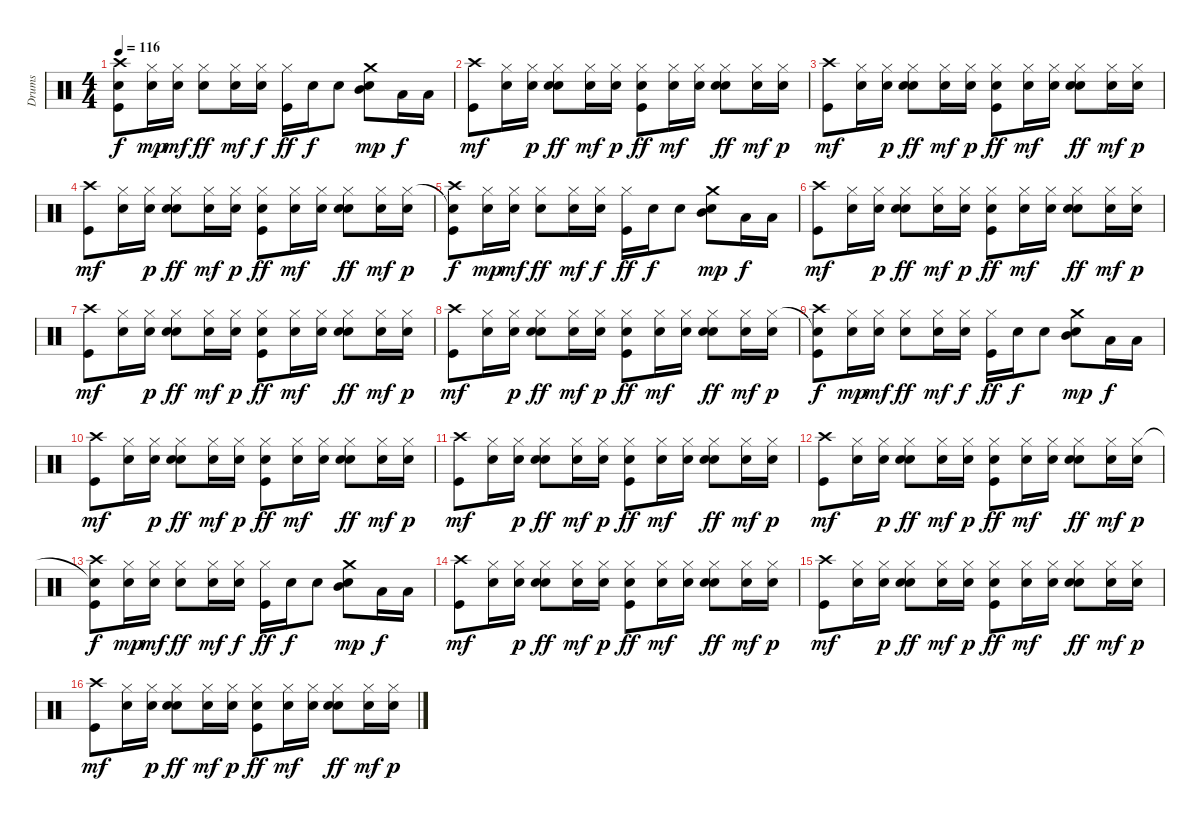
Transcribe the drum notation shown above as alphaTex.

\track ("Drums" "Drums") {instrument percussion}
\staff {score}
\articulation defaults
\ts (4 4)
\tempo 116
\clef neutral
\ks c
("Kick (hit)" "Snare (hit)"{t} "Crash high (hit)").8{dy f} ("Snare (hit) 2" "Hi-Hat (closed)").16{dy mp} ("Snare (hit) 2" "Hi-Hat (closed)").16{dy mf} ("Electric Snare (hit)" "Hi-Hat (closed)").8{dy ff} ("Snare (hit) 2" "Hi-Hat (closed)").16{dy mf} ("Snare (hit) 2" "Hi-Hat (closed)").16{dy f} ("Kick (hit)" "Hi-Hat (closed)").16{dy ff} "Snare (hit) 2".16{dy f} "Snare (hit) 2".8 ("Electric Snare (hit)" "Mid Tom (hit)" "Crash medium (hit)").8{dy mp} "Low Tom (hit)".16{dy f} "Low Floor Tom (hit)".16 |
("Kick (hit)" "Crash high (hit)").8{dy mf} ("Snare (hit) 2" "Hi-Hat (closed)").16 ("Snare (hit) 2" "Hi-Hat (closed)").16{dy p} ("Snare (hit) 2" "Electric Snare (hit)" "Hi-Hat (closed)").8{dy ff} ("Snare (hit) 2" "Hi-Hat (closed)").16{dy mf} ("Snare (hit) 2" "Hi-Hat (closed)").16{dy p} ("Kick (hit)" "Snare (hit) 2" "Hi-Hat (closed)").8{dy ff} ("Snare (hit) 2" "Hi-Hat (closed)").16{dy mf} ("Snare (hit) 2" "Hi-Hat (closed)").16 ("Snare (hit) 2" "Electric Snare (hit)" "Hi-Hat (closed)").8{dy ff} ("Snare (hit) 2" "Hi-Hat (closed)").16{dy mf} ("Snare (hit) 2" "Hi-Hat (closed)").16{dy p} |
("Kick (hit)" "Crash high (hit)").8{dy mf} ("Snare (hit) 2" "Hi-Hat (closed)").16 ("Snare (hit) 2" "Hi-Hat (closed)").16{dy p} ("Snare (hit) 2" "Electric Snare (hit)" "Hi-Hat (closed)").8{dy ff} ("Snare (hit) 2" "Hi-Hat (closed)").16{dy mf} ("Snare (hit) 2" "Hi-Hat (closed)").16{dy p} ("Kick (hit)" "Snare (hit) 2" "Hi-Hat (closed)").8{dy ff} ("Snare (hit) 2" "Hi-Hat (closed)").16{dy mf} ("Snare (hit) 2" "Hi-Hat (closed)").16 ("Snare (hit) 2" "Electric Snare (hit)" "Hi-Hat (closed)").8{dy ff} ("Snare (hit) 2" "Hi-Hat (closed)").16{dy mf} ("Snare (hit) 2" "Hi-Hat (closed)").16{dy p} |
("Kick (hit)" "Crash high (hit)").8{dy mf} ("Snare (hit) 2" "Hi-Hat (closed)").16 ("Snare (hit) 2" "Hi-Hat (closed)").16{dy p} ("Snare (hit) 2" "Electric Snare (hit)" "Hi-Hat (closed)").8{dy ff} ("Snare (hit) 2" "Hi-Hat (closed)").16{dy mf} ("Snare (hit) 2" "Hi-Hat (closed)").16{dy p} ("Kick (hit)" "Snare (hit) 2" "Hi-Hat (closed)").8{dy ff} ("Snare (hit) 2" "Hi-Hat (closed)").16{dy mf} ("Snare (hit) 2" "Hi-Hat (closed)").16 ("Snare (hit) 2" "Electric Snare (hit)" "Hi-Hat (closed)").8{dy ff} ("Snare (hit) 2" "Hi-Hat (closed)").16{dy mf} ("Snare (hit) 2" "Hi-Hat (closed)").16{dy p} |
("Kick (hit)" "Snare (hit)"{t} "Crash high (hit)").8{dy f} ("Snare (hit) 2" "Hi-Hat (closed)").16{dy mp} ("Snare (hit) 2" "Hi-Hat (closed)").16{dy mf} ("Electric Snare (hit)" "Hi-Hat (closed)").8{dy ff} ("Snare (hit) 2" "Hi-Hat (closed)").16{dy mf} ("Snare (hit) 2" "Hi-Hat (closed)").16{dy f} ("Kick (hit)" "Hi-Hat (closed)").16{dy ff} "Snare (hit) 2".16{dy f} "Snare (hit) 2".8 ("Electric Snare (hit)" "Mid Tom (hit)" "Crash medium (hit)").8{dy mp} "Low Tom (hit)".16{dy f} "Low Floor Tom (hit)".16 |
("Kick (hit)" "Crash high (hit)").8{dy mf} ("Snare (hit) 2" "Hi-Hat (closed)").16 ("Snare (hit) 2" "Hi-Hat (closed)").16{dy p} ("Snare (hit) 2" "Electric Snare (hit)" "Hi-Hat (closed)").8{dy ff} ("Snare (hit) 2" "Hi-Hat (closed)").16{dy mf} ("Snare (hit) 2" "Hi-Hat (closed)").16{dy p} ("Kick (hit)" "Snare (hit) 2" "Hi-Hat (closed)").8{dy ff} ("Snare (hit) 2" "Hi-Hat (closed)").16{dy mf} ("Snare (hit) 2" "Hi-Hat (closed)").16 ("Snare (hit) 2" "Electric Snare (hit)" "Hi-Hat (closed)").8{dy ff} ("Snare (hit) 2" "Hi-Hat (closed)").16{dy mf} ("Snare (hit) 2" "Hi-Hat (closed)").16{dy p} |
("Kick (hit)" "Crash high (hit)").8{dy mf} ("Snare (hit) 2" "Hi-Hat (closed)").16 ("Snare (hit) 2" "Hi-Hat (closed)").16{dy p} ("Snare (hit) 2" "Electric Snare (hit)" "Hi-Hat (closed)").8{dy ff} ("Snare (hit) 2" "Hi-Hat (closed)").16{dy mf} ("Snare (hit) 2" "Hi-Hat (closed)").16{dy p} ("Kick (hit)" "Snare (hit) 2" "Hi-Hat (closed)").8{dy ff} ("Snare (hit) 2" "Hi-Hat (closed)").16{dy mf} ("Snare (hit) 2" "Hi-Hat (closed)").16 ("Snare (hit) 2" "Electric Snare (hit)" "Hi-Hat (closed)").8{dy ff} ("Snare (hit) 2" "Hi-Hat (closed)").16{dy mf} ("Snare (hit) 2" "Hi-Hat (closed)").16{dy p} |
("Kick (hit)" "Crash high (hit)").8{dy mf} ("Snare (hit) 2" "Hi-Hat (closed)").16 ("Snare (hit) 2" "Hi-Hat (closed)").16{dy p} ("Snare (hit) 2" "Electric Snare (hit)" "Hi-Hat (closed)").8{dy ff} ("Snare (hit) 2" "Hi-Hat (closed)").16{dy mf} ("Snare (hit) 2" "Hi-Hat (closed)").16{dy p} ("Kick (hit)" "Snare (hit) 2" "Hi-Hat (closed)").8{dy ff} ("Snare (hit) 2" "Hi-Hat (closed)").16{dy mf} ("Snare (hit) 2" "Hi-Hat (closed)").16 ("Snare (hit) 2" "Electric Snare (hit)" "Hi-Hat (closed)").8{dy ff} ("Snare (hit) 2" "Hi-Hat (closed)").16{dy mf} ("Snare (hit) 2" "Hi-Hat (closed)").16{dy p} |
("Kick (hit)" "Snare (hit)"{t} "Crash high (hit)").8{dy f} ("Snare (hit) 2" "Hi-Hat (closed)").16{dy mp} ("Snare (hit) 2" "Hi-Hat (closed)").16{dy mf} ("Electric Snare (hit)" "Hi-Hat (closed)").8{dy ff} ("Snare (hit) 2" "Hi-Hat (closed)").16{dy mf} ("Snare (hit) 2" "Hi-Hat (closed)").16{dy f} ("Kick (hit)" "Hi-Hat (closed)").16{dy ff} "Snare (hit) 2".16{dy f} "Snare (hit) 2".8 ("Electric Snare (hit)" "Mid Tom (hit)" "Crash medium (hit)").8{dy mp} "Low Tom (hit)".16{dy f} "Low Floor Tom (hit)".16 |
("Kick (hit)" "Crash high (hit)").8{dy mf} ("Snare (hit) 2" "Hi-Hat (closed)").16 ("Snare (hit) 2" "Hi-Hat (closed)").16{dy p} ("Snare (hit) 2" "Electric Snare (hit)" "Hi-Hat (closed)").8{dy ff} ("Snare (hit) 2" "Hi-Hat (closed)").16{dy mf} ("Snare (hit) 2" "Hi-Hat (closed)").16{dy p} ("Kick (hit)" "Snare (hit) 2" "Hi-Hat (closed)").8{dy ff} ("Snare (hit) 2" "Hi-Hat (closed)").16{dy mf} ("Snare (hit) 2" "Hi-Hat (closed)").16 ("Snare (hit) 2" "Electric Snare (hit)" "Hi-Hat (closed)").8{dy ff} ("Snare (hit) 2" "Hi-Hat (closed)").16{dy mf} ("Snare (hit) 2" "Hi-Hat (closed)").16{dy p} |
("Kick (hit)" "Crash high (hit)").8{dy mf} ("Snare (hit) 2" "Hi-Hat (closed)").16 ("Snare (hit) 2" "Hi-Hat (closed)").16{dy p} ("Snare (hit) 2" "Electric Snare (hit)" "Hi-Hat (closed)").8{dy ff} ("Snare (hit) 2" "Hi-Hat (closed)").16{dy mf} ("Snare (hit) 2" "Hi-Hat (closed)").16{dy p} ("Kick (hit)" "Snare (hit) 2" "Hi-Hat (closed)").8{dy ff} ("Snare (hit) 2" "Hi-Hat (closed)").16{dy mf} ("Snare (hit) 2" "Hi-Hat (closed)").16 ("Snare (hit) 2" "Electric Snare (hit)" "Hi-Hat (closed)").8{dy ff} ("Snare (hit) 2" "Hi-Hat (closed)").16{dy mf} ("Snare (hit) 2" "Hi-Hat (closed)").16{dy p} |
("Kick (hit)" "Crash high (hit)").8{dy mf} ("Snare (hit) 2" "Hi-Hat (closed)").16 ("Snare (hit) 2" "Hi-Hat (closed)").16{dy p} ("Snare (hit) 2" "Electric Snare (hit)" "Hi-Hat (closed)").8{dy ff} ("Snare (hit) 2" "Hi-Hat (closed)").16{dy mf} ("Snare (hit) 2" "Hi-Hat (closed)").16{dy p} ("Kick (hit)" "Snare (hit) 2" "Hi-Hat (closed)").8{dy ff} ("Snare (hit) 2" "Hi-Hat (closed)").16{dy mf} ("Snare (hit) 2" "Hi-Hat (closed)").16 ("Snare (hit) 2" "Electric Snare (hit)" "Hi-Hat (closed)").8{dy ff} ("Snare (hit) 2" "Hi-Hat (closed)").16{dy mf} ("Snare (hit) 2" "Hi-Hat (closed)").16{dy p} |
("Kick (hit)" "Snare (hit)"{t} "Crash high (hit)").8{dy f} ("Snare (hit) 2" "Hi-Hat (closed)").16{dy mp} ("Snare (hit) 2" "Hi-Hat (closed)").16{dy mf} ("Electric Snare (hit)" "Hi-Hat (closed)").8{dy ff} ("Snare (hit) 2" "Hi-Hat (closed)").16{dy mf} ("Snare (hit) 2" "Hi-Hat (closed)").16{dy f} ("Kick (hit)" "Hi-Hat (closed)").16{dy ff} "Snare (hit) 2".16{dy f} "Snare (hit) 2".8 ("Electric Snare (hit)" "Mid Tom (hit)" "Crash medium (hit)").8{dy mp} "Low Tom (hit)".16{dy f} "Low Floor Tom (hit)".16 |
("Kick (hit)" "Crash high (hit)").8{dy mf} ("Snare (hit) 2" "Hi-Hat (closed)").16 ("Snare (hit) 2" "Hi-Hat (closed)").16{dy p} ("Snare (hit) 2" "Electric Snare (hit)" "Hi-Hat (closed)").8{dy ff} ("Snare (hit) 2" "Hi-Hat (closed)").16{dy mf} ("Snare (hit) 2" "Hi-Hat (closed)").16{dy p} ("Kick (hit)" "Snare (hit) 2" "Hi-Hat (closed)").8{dy ff} ("Snare (hit) 2" "Hi-Hat (closed)").16{dy mf} ("Snare (hit) 2" "Hi-Hat (closed)").16 ("Snare (hit) 2" "Electric Snare (hit)" "Hi-Hat (closed)").8{dy ff} ("Snare (hit) 2" "Hi-Hat (closed)").16{dy mf} ("Snare (hit) 2" "Hi-Hat (closed)").16{dy p} |
("Kick (hit)" "Crash high (hit)").8{dy mf} ("Snare (hit) 2" "Hi-Hat (closed)").16 ("Snare (hit) 2" "Hi-Hat (closed)").16{dy p} ("Snare (hit) 2" "Electric Snare (hit)" "Hi-Hat (closed)").8{dy ff} ("Snare (hit) 2" "Hi-Hat (closed)").16{dy mf} ("Snare (hit) 2" "Hi-Hat (closed)").16{dy p} ("Kick (hit)" "Snare (hit) 2" "Hi-Hat (closed)").8{dy ff} ("Snare (hit) 2" "Hi-Hat (closed)").16{dy mf} ("Snare (hit) 2" "Hi-Hat (closed)").16 ("Snare (hit) 2" "Electric Snare (hit)" "Hi-Hat (closed)").8{dy ff} ("Snare (hit) 2" "Hi-Hat (closed)").16{dy mf} ("Snare (hit) 2" "Hi-Hat (closed)").16{dy p} |
("Kick (hit)" "Crash high (hit)").8{dy mf} ("Snare (hit) 2" "Hi-Hat (closed)").16 ("Snare (hit) 2" "Hi-Hat (closed)").16{dy p} ("Snare (hit) 2" "Electric Snare (hit)" "Hi-Hat (closed)").8{dy ff} ("Snare (hit) 2" "Hi-Hat (closed)").16{dy mf} ("Snare (hit) 2" "Hi-Hat (closed)").16{dy p} ("Kick (hit)" "Snare (hit) 2" "Hi-Hat (closed)").8{dy ff} ("Snare (hit) 2" "Hi-Hat (closed)").16{dy mf} ("Snare (hit) 2" "Hi-Hat (closed)").16 ("Snare (hit) 2" "Electric Snare (hit)" "Hi-Hat (closed)").8{dy ff} ("Snare (hit) 2" "Hi-Hat (closed)").16{dy mf} ("Snare (hit) 2" "Hi-Hat (closed)").16{dy p}
